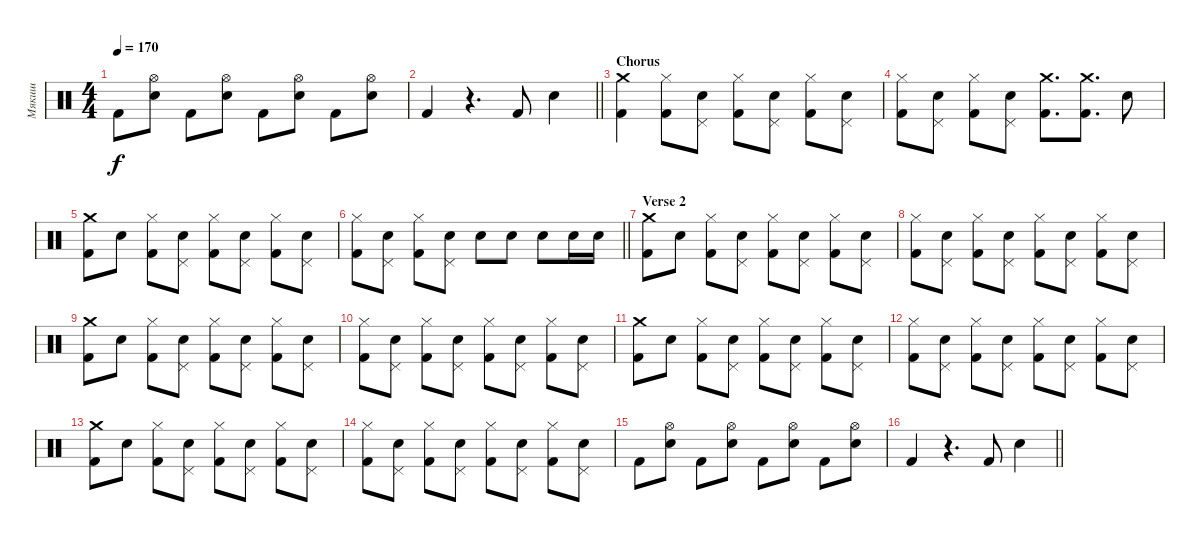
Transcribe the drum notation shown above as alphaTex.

\track ("Мякиш" "Мякиш") {instrument percussion}
\staff {score}
\articulation defaults
\ts (4 4)
\tempo 170
\clef neutral
\ks c "Kick (hit) 2".8{dy f}
("Hi-Hat (open)" "Electric Snare (hit)").8 "Kick (hit) 2".8 ("Hi-Hat (open)" "Electric Snare (hit)").8 "Kick (hit) 2".8 ("Hi-Hat (open)" "Electric Snare (hit)").8 "Kick (hit) 2".8 ("Hi-Hat (open)" "Electric Snare (hit)").8 |
\barLineRight lightlight "Kick (hit) 2".4
r.4{d} "Kick (hit) 2".8 "Electric Snare (hit)".4 |
\section ("" "Chorus")
("Crash medium (hit)" "Kick (hit) 2").4 ("Hi-Hat (closed)" "Kick (hit) 2").8 ("Pedal Hi-Hat (hit)" "Electric Snare (hit)").8 ("Hi-Hat (closed)" "Kick (hit) 2").8 ("Pedal Hi-Hat (hit)" "Electric Snare (hit)").8 ("Hi-Hat (closed)" "Kick (hit) 2").8 ("Pedal Hi-Hat (hit)" "Electric Snare (hit)").8 |
("Hi-Hat (closed)" "Kick (hit) 2").8 ("Pedal Hi-Hat (hit)" "Electric Snare (hit)").8 ("Hi-Hat (closed)" "Kick (hit) 2").8 ("Pedal Hi-Hat (hit)" "Electric Snare (hit)").8 ("Crash medium (hit)" "Kick (hit) 2").8{d} ("Crash medium (hit)" "Kick (hit) 2").8{d} "Electric Snare (hit)".8 |
("Crash medium (hit)" "Kick (hit) 2").8 "Electric Snare (hit)".8 ("Hi-Hat (closed)" "Kick (hit) 2").8 ("Pedal Hi-Hat (hit)" "Electric Snare (hit)").8 ("Hi-Hat (closed)" "Kick (hit) 2").8 ("Pedal Hi-Hat (hit)" "Electric Snare (hit)").8 ("Hi-Hat (closed)" "Kick (hit) 2").8 ("Pedal Hi-Hat (hit)" "Electric Snare (hit)").8 |
\barLineRight lightlight
("Hi-Hat (closed)" "Kick (hit) 2").8 ("Pedal Hi-Hat (hit)" "Electric Snare (hit)").8 ("Hi-Hat (closed)" "Kick (hit) 2").8 ("Pedal Hi-Hat (hit)" "Electric Snare (hit)").8 "Electric Snare (hit)".8 "Electric Snare (hit)".8 "Electric Snare (hit)".8 "Electric Snare (hit)".16 "Electric Snare (hit)".16 |
\section ("" "Verse 2")
("Crash medium (hit)" "Kick (hit) 2").8 "Electric Snare (hit)".8 ("Hi-Hat (closed)" "Kick (hit) 2").8 ("Pedal Hi-Hat (hit)" "Electric Snare (hit)").8 ("Hi-Hat (closed)" "Kick (hit) 2").8 ("Pedal Hi-Hat (hit)" "Electric Snare (hit)").8 ("Hi-Hat (closed)" "Kick (hit) 2").8 ("Pedal Hi-Hat (hit)" "Electric Snare (hit)").8 |
("Hi-Hat (closed)" "Kick (hit) 2").8 ("Pedal Hi-Hat (hit)" "Electric Snare (hit)").8 ("Hi-Hat (closed)" "Kick (hit) 2").8 ("Pedal Hi-Hat (hit)" "Electric Snare (hit)").8 ("Hi-Hat (closed)" "Kick (hit) 2").8 ("Pedal Hi-Hat (hit)" "Electric Snare (hit)").8 ("Hi-Hat (closed)" "Kick (hit) 2").8 ("Pedal Hi-Hat (hit)" "Electric Snare (hit)").8 |
("Crash medium (hit)" "Kick (hit) 2").8 "Electric Snare (hit)".8 ("Hi-Hat (closed)" "Kick (hit) 2").8 ("Pedal Hi-Hat (hit)" "Electric Snare (hit)").8 ("Hi-Hat (closed)" "Kick (hit) 2").8 ("Pedal Hi-Hat (hit)" "Electric Snare (hit)").8 ("Hi-Hat (closed)" "Kick (hit) 2").8 ("Pedal Hi-Hat (hit)" "Electric Snare (hit)").8 |
("Hi-Hat (closed)" "Kick (hit) 2").8 ("Pedal Hi-Hat (hit)" "Electric Snare (hit)").8 ("Hi-Hat (closed)" "Kick (hit) 2").8 ("Pedal Hi-Hat (hit)" "Electric Snare (hit)").8 ("Hi-Hat (closed)" "Kick (hit) 2").8 ("Pedal Hi-Hat (hit)" "Electric Snare (hit)").8 ("Hi-Hat (closed)" "Kick (hit) 2").8 ("Pedal Hi-Hat (hit)" "Electric Snare (hit)").8 |
("Crash medium (hit)" "Kick (hit) 2").8 "Electric Snare (hit)".8 ("Hi-Hat (closed)" "Kick (hit) 2").8 ("Pedal Hi-Hat (hit)" "Electric Snare (hit)").8 ("Hi-Hat (closed)" "Kick (hit) 2").8 ("Pedal Hi-Hat (hit)" "Electric Snare (hit)").8 ("Hi-Hat (closed)" "Kick (hit) 2").8 ("Pedal Hi-Hat (hit)" "Electric Snare (hit)").8 |
("Hi-Hat (closed)" "Kick (hit) 2").8 ("Pedal Hi-Hat (hit)" "Electric Snare (hit)").8 ("Hi-Hat (closed)" "Kick (hit) 2").8 ("Pedal Hi-Hat (hit)" "Electric Snare (hit)").8 ("Hi-Hat (closed)" "Kick (hit) 2").8 ("Pedal Hi-Hat (hit)" "Electric Snare (hit)").8 ("Hi-Hat (closed)" "Kick (hit) 2").8 ("Pedal Hi-Hat (hit)" "Electric Snare (hit)").8 |
("Crash medium (hit)" "Kick (hit) 2").8 "Electric Snare (hit)".8 ("Hi-Hat (closed)" "Kick (hit) 2").8 ("Pedal Hi-Hat (hit)" "Electric Snare (hit)").8 ("Hi-Hat (closed)" "Kick (hit) 2").8 ("Pedal Hi-Hat (hit)" "Electric Snare (hit)").8 ("Hi-Hat (closed)" "Kick (hit) 2").8 ("Pedal Hi-Hat (hit)" "Electric Snare (hit)").8 |
("Hi-Hat (closed)" "Kick (hit) 2").8 ("Pedal Hi-Hat (hit)" "Electric Snare (hit)").8 ("Hi-Hat (closed)" "Kick (hit) 2").8 ("Pedal Hi-Hat (hit)" "Electric Snare (hit)").8 ("Hi-Hat (closed)" "Kick (hit) 2").8 ("Pedal Hi-Hat (hit)" "Electric Snare (hit)").8 ("Hi-Hat (closed)" "Kick (hit) 2").8 ("Pedal Hi-Hat (hit)" "Electric Snare (hit)").8 |
"Kick (hit) 2".8 ("Hi-Hat (open)" "Electric Snare (hit)").8 "Kick (hit) 2".8 ("Hi-Hat (open)" "Electric Snare (hit)").8 "Kick (hit) 2".8 ("Hi-Hat (open)" "Electric Snare (hit)").8 "Kick (hit) 2".8 ("Hi-Hat (open)" "Electric Snare (hit)").8 |
\barLineRight lightlight "Kick (hit) 2".4
r.4{d} "Kick (hit) 2".8 "Electric Snare (hit)".4
